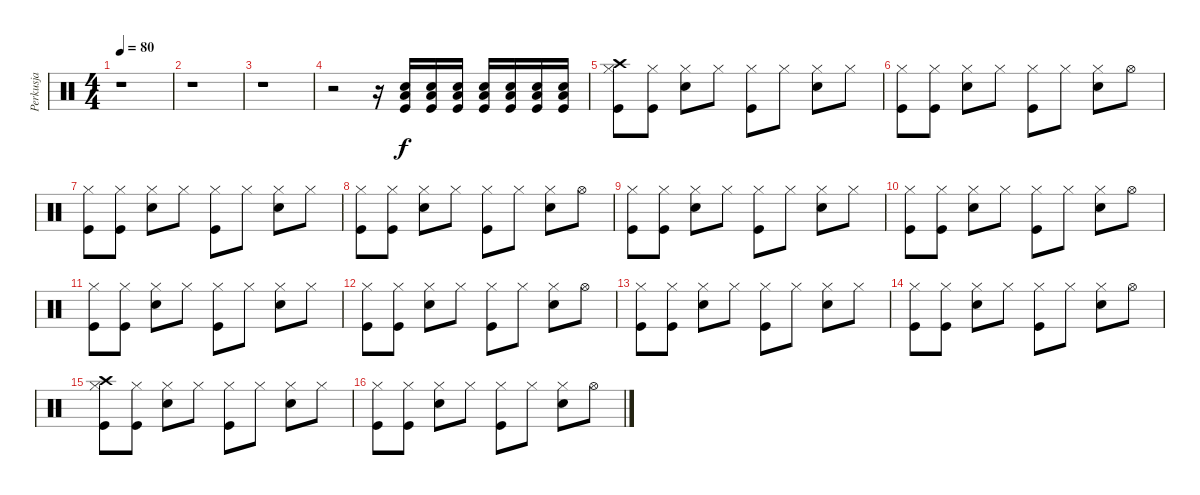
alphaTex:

\track ("Perkusja" "Perkusja") {instrument percussion}
\staff {score}
\articulation defaults
\ts (4 4)
\tempo 80
\clef neutral
\ks c
r.1{dy f} |
r.1 |
r.1 |
r.2 r.16 ("Low Tom (hit)" "Metronome (bell)" "Kick (hit)").16 ("Low Tom (hit)" "Metronome (bell)" "Kick (hit)").16 ("Low Tom (hit)" "Metronome (bell)" "Kick (hit)").16 ("Low Tom (hit)" "Metronome (bell)" "Kick (hit)").16 ("Low Tom (hit)" "Metronome (bell)" "Kick (hit)").16 ("Low Tom (hit)" "Metronome (bell)" "Kick (hit)").16 ("Low Tom (hit)" "Metronome (bell)" "Kick (hit)").16 |
("Hi-Hat (closed)" "Crash high (hit)" "Kick (hit)").8 ("Hi-Hat (closed)" "Kick (hit)").8 ("Hi-Hat (closed)" "Metronome (bell)").8 "Hi-Hat (closed)".8 ("Hi-Hat (closed)" "Kick (hit)").8 "Hi-Hat (closed)".8 ("Hi-Hat (closed)" "Metronome (bell)").8 "Hi-Hat (closed)".8 |
("Hi-Hat (closed)" "Kick (hit)").8 ("Hi-Hat (closed)" "Kick (hit)").8 ("Hi-Hat (closed)" "Metronome (bell)").8 "Hi-Hat (closed)".8 ("Hi-Hat (closed)" "Kick (hit)").8 "Hi-Hat (closed)".8 ("Hi-Hat (closed)" "Metronome (bell)").8 "Hi-Hat (open)".8 |
("Hi-Hat (closed)" "Kick (hit)").8 ("Hi-Hat (closed)" "Kick (hit)").8 ("Hi-Hat (closed)" "Metronome (bell)").8 "Hi-Hat (closed)".8 ("Hi-Hat (closed)" "Kick (hit)").8 "Hi-Hat (closed)".8 ("Hi-Hat (closed)" "Metronome (bell)").8 "Hi-Hat (closed)".8 |
("Hi-Hat (closed)" "Kick (hit)").8 ("Hi-Hat (closed)" "Kick (hit)").8 ("Hi-Hat (closed)" "Metronome (bell)").8 "Hi-Hat (closed)".8 ("Hi-Hat (closed)" "Kick (hit)").8 "Hi-Hat (closed)".8 ("Hi-Hat (closed)" "Metronome (bell)").8 "Hi-Hat (open)".8 |
("Hi-Hat (closed)" "Kick (hit)").8 ("Hi-Hat (closed)" "Kick (hit)").8 ("Hi-Hat (closed)" "Metronome (bell)").8 "Hi-Hat (closed)".8 ("Hi-Hat (closed)" "Kick (hit)").8 "Hi-Hat (closed)".8 ("Hi-Hat (closed)" "Metronome (bell)").8 "Hi-Hat (closed)".8 |
("Hi-Hat (closed)" "Kick (hit)").8 ("Hi-Hat (closed)" "Kick (hit)").8 ("Hi-Hat (closed)" "Metronome (bell)").8 "Hi-Hat (closed)".8 ("Hi-Hat (closed)" "Kick (hit)").8 "Hi-Hat (closed)".8 ("Hi-Hat (closed)" "Metronome (bell)").8 "Hi-Hat (open)".8 |
("Hi-Hat (closed)" "Kick (hit)").8 ("Hi-Hat (closed)" "Kick (hit)").8 ("Hi-Hat (closed)" "Metronome (bell)").8 "Hi-Hat (closed)".8 ("Hi-Hat (closed)" "Kick (hit)").8 "Hi-Hat (closed)".8 ("Hi-Hat (closed)" "Metronome (bell)").8 "Hi-Hat (closed)".8 |
("Hi-Hat (closed)" "Kick (hit)").8 ("Hi-Hat (closed)" "Kick (hit)").8 ("Hi-Hat (closed)" "Metronome (bell)").8 "Hi-Hat (closed)".8 ("Hi-Hat (closed)" "Kick (hit)").8 "Hi-Hat (closed)".8 ("Hi-Hat (closed)" "Metronome (bell)").8 "Hi-Hat (open)".8 |
("Hi-Hat (closed)" "Kick (hit)").8 ("Hi-Hat (closed)" "Kick (hit)").8 ("Hi-Hat (closed)" "Metronome (bell)").8 "Hi-Hat (closed)".8 ("Hi-Hat (closed)" "Kick (hit)").8 "Hi-Hat (closed)".8 ("Hi-Hat (closed)" "Metronome (bell)").8 "Hi-Hat (closed)".8 |
("Hi-Hat (closed)" "Kick (hit)").8 ("Hi-Hat (closed)" "Kick (hit)").8 ("Hi-Hat (closed)" "Metronome (bell)").8 "Hi-Hat (closed)".8 ("Hi-Hat (closed)" "Kick (hit)").8 "Hi-Hat (closed)".8 ("Hi-Hat (closed)" "Metronome (bell)").8 "Hi-Hat (open)".8 |
("Hi-Hat (closed)" "Crash high (hit)" "Kick (hit)").8 ("Hi-Hat (closed)" "Kick (hit)").8 ("Hi-Hat (closed)" "Metronome (bell)").8 "Hi-Hat (closed)".8 ("Hi-Hat (closed)" "Kick (hit)").8 "Hi-Hat (closed)".8 ("Hi-Hat (closed)" "Metronome (bell)").8 "Hi-Hat (closed)".8 |
("Hi-Hat (closed)" "Kick (hit)").8 ("Hi-Hat (closed)" "Kick (hit)").8 ("Hi-Hat (closed)" "Metronome (bell)").8 "Hi-Hat (closed)".8 ("Hi-Hat (closed)" "Kick (hit)").8 "Hi-Hat (closed)".8 ("Hi-Hat (closed)" "Metronome (bell)").8 "Hi-Hat (open)".8
